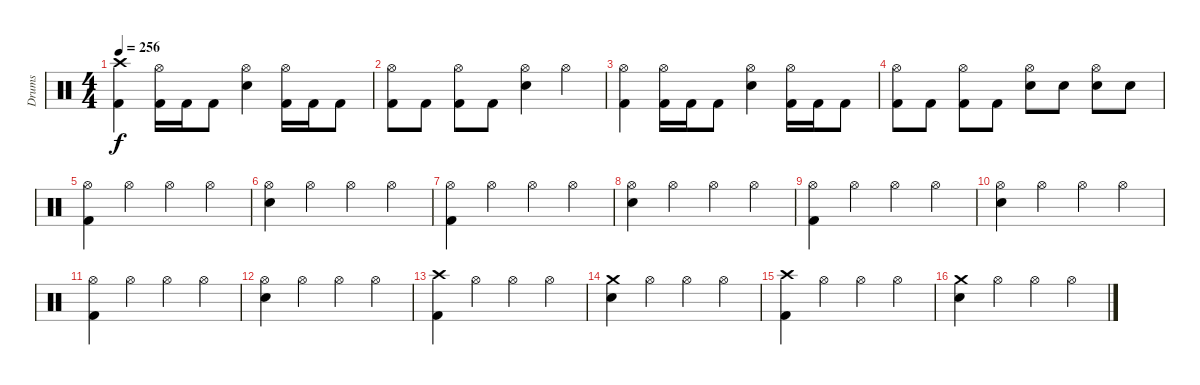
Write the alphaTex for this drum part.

\track ("Drums" "Drums") {instrument percussion}
\staff {score}
\articulation defaults
\ts (4 4)
\tempo 256
\clef neutral
\ks c
("Crash high (hit)" "Kick (hit) 2").4{dy f} ("Hi-Hat (open)" "Kick (hit) 2").16 "Kick (hit) 2".16 "Kick (hit) 2".8 ("Hi-Hat (open)" "Electric Snare (hit)").4 ("Hi-Hat (open)" "Kick (hit) 2").16 "Kick (hit) 2".16 "Kick (hit) 2".8 |
("Hi-Hat (open)" "Kick (hit) 2").8 "Kick (hit) 2".8 ("Hi-Hat (open)" "Kick (hit) 2").8 "Kick (hit) 2".8 ("Hi-Hat (open)" "Electric Snare (hit)").4 "Hi-Hat (open)".4 |
("Hi-Hat (open)" "Kick (hit) 2").4 ("Hi-Hat (open)" "Kick (hit) 2").16 "Kick (hit) 2".16 "Kick (hit) 2".8 ("Hi-Hat (open)" "Electric Snare (hit)").4 ("Hi-Hat (open)" "Kick (hit) 2").16 "Kick (hit) 2".16 "Kick (hit) 2".8 |
("Hi-Hat (open)" "Kick (hit) 2").8 "Kick (hit) 2".8 ("Hi-Hat (open)" "Kick (hit) 2").8 "Kick (hit) 2".8 ("Hi-Hat (open)" "Electric Snare (hit)").8 "Electric Snare (hit)".8 ("Hi-Hat (open)" "Electric Snare (hit)").8 "Electric Snare (hit)".8 |
("Hi-Hat (open)" "Kick (hit) 2").4 "Hi-Hat (open)".4 "Hi-Hat (open)".4 "Hi-Hat (open)".4 |
("Hi-Hat (open)" "Electric Snare (hit)").4 "Hi-Hat (open)".4 "Hi-Hat (open)".4 "Hi-Hat (open)".4 |
("Hi-Hat (open)" "Kick (hit) 2").4 "Hi-Hat (open)".4 "Hi-Hat (open)".4 "Hi-Hat (open)".4 |
("Hi-Hat (open)" "Electric Snare (hit)").4 "Hi-Hat (open)".4 "Hi-Hat (open)".4 "Hi-Hat (open)".4 |
("Hi-Hat (open)" "Kick (hit) 2").4 "Hi-Hat (open)".4 "Hi-Hat (open)".4 "Hi-Hat (open)".4 |
("Hi-Hat (open)" "Electric Snare (hit)").4 "Hi-Hat (open)".4 "Hi-Hat (open)".4 "Hi-Hat (open)".4 |
("Hi-Hat (open)" "Kick (hit) 2").4 "Hi-Hat (open)".4 "Hi-Hat (open)".4 "Hi-Hat (open)".4 |
("Hi-Hat (open)" "Electric Snare (hit)").4 "Hi-Hat (open)".4 "Hi-Hat (open)".4 "Hi-Hat (open)".4 |
("Crash high (hit)" "Kick (hit) 2").4 "Hi-Hat (open)".4 "Hi-Hat (open)".4 "Hi-Hat (open)".4 |
("Crash medium (hit)" "Electric Snare (hit)").4 "Hi-Hat (open)".4 "Hi-Hat (open)".4 "Hi-Hat (open)".4 |
("Crash high (hit)" "Kick (hit) 2").4 "Hi-Hat (open)".4 "Hi-Hat (open)".4 "Hi-Hat (open)".4 |
("Crash medium (hit)" "Electric Snare (hit)").4 "Hi-Hat (open)".4 "Hi-Hat (open)".4 "Hi-Hat (open)".4
